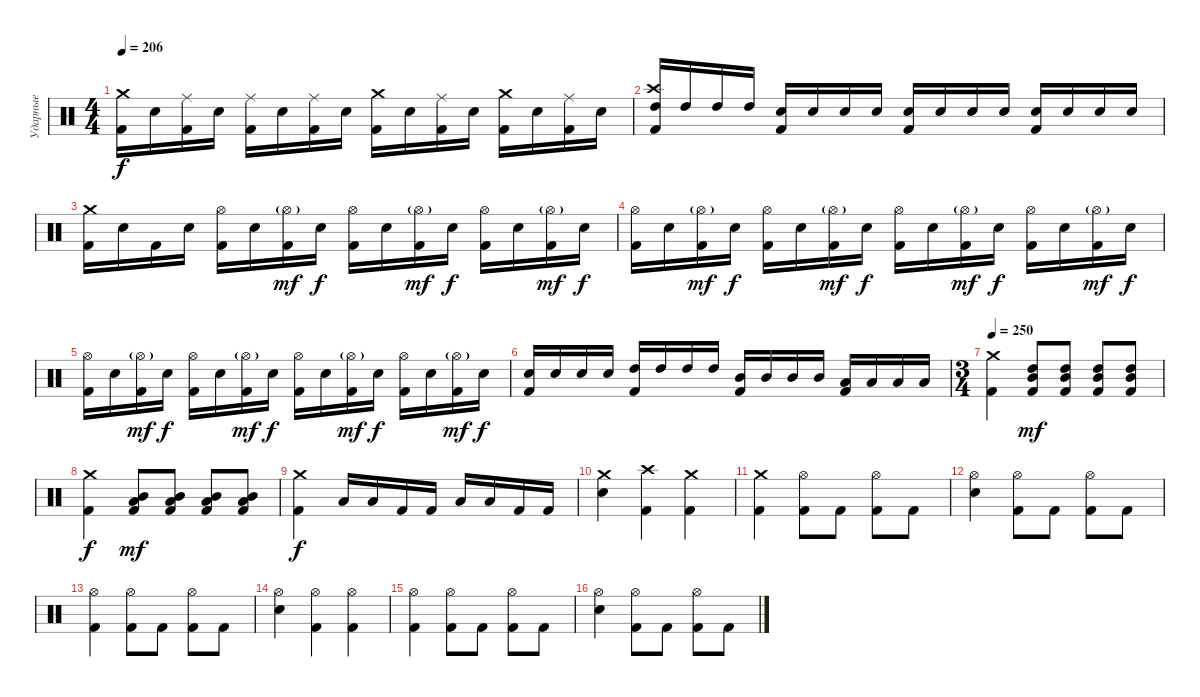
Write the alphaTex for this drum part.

\track ("Ударные" "Ударные") {instrument percussion}
\staff {score}
\articulation defaults
\ts (4 4)
\tempo 206
\clef neutral
\ks c
("Crash medium (hit)" "Kick (hit) 2").16{dy f} "Electric Snare (hit)".16 ("Ride (middle)" "Kick (hit) 2").16 "Electric Snare (hit)".16 ("Ride (middle)" "Kick (hit) 2").16 "Electric Snare (hit)".16 ("Ride (middle)" "Kick (hit) 2").16 "Electric Snare (hit)".16 ("Crash medium (hit)" "Kick (hit) 2").16 "Electric Snare (hit)".16 ("Ride (middle)" "Kick (hit) 2").16 "Electric Snare (hit)".16 ("Crash medium (hit)" "Kick (hit) 2").16 "Electric Snare (hit)".16 ("Ride (middle)" "Kick (hit) 2").16 "Electric Snare (hit)".16 |
("Crash high (hit)" "High Tom (hit)" "Kick (hit) 2").16 "High Tom (hit)".16 "High Tom (hit)".16 "High Tom (hit)".16 ("Electric Snare (hit)" "Kick (hit) 2").16 "Electric Snare (hit)".16 "Electric Snare (hit)".16 "Electric Snare (hit)".16 ("Electric Snare (hit)" "Kick (hit) 2").16 "Electric Snare (hit)".16 "Electric Snare (hit)".16 "Electric Snare (hit)".16 ("Electric Snare (hit)" "Kick (hit) 2").16 "Electric Snare (hit)".16 "Electric Snare (hit)".16 "Electric Snare (hit)".16 |
("Crash medium (hit)" "Kick (hit) 2").16 "Electric Snare (hit)".16 "Kick (hit) 2".16 "Electric Snare (hit)".16 ("Hi-Hat (open)" "Kick (hit) 2").16 "Electric Snare (hit)".16 ("Hi-Hat (open)"{g} "Kick (hit) 2").16{dy mf} "Electric Snare (hit)".16{dy f} ("Hi-Hat (open)" "Kick (hit) 2").16 "Electric Snare (hit)".16 ("Hi-Hat (open)"{g} "Kick (hit) 2").16{dy mf} "Electric Snare (hit)".16{dy f} ("Hi-Hat (open)" "Kick (hit) 2").16 "Electric Snare (hit)".16 ("Hi-Hat (open)"{g} "Kick (hit) 2").16{dy mf} "Electric Snare (hit)".16{dy f} |
("Hi-Hat (open)" "Kick (hit) 2").16 "Electric Snare (hit)".16 ("Hi-Hat (open)"{g} "Kick (hit) 2").16{dy mf} "Electric Snare (hit)".16{dy f} ("Hi-Hat (open)" "Kick (hit) 2").16 "Electric Snare (hit)".16 ("Hi-Hat (open)"{g} "Kick (hit) 2").16{dy mf} "Electric Snare (hit)".16{dy f} ("Hi-Hat (open)" "Kick (hit) 2").16 "Electric Snare (hit)".16 ("Hi-Hat (open)"{g} "Kick (hit) 2").16{dy mf} "Electric Snare (hit)".16{dy f} ("Hi-Hat (open)" "Kick (hit) 2").16 "Electric Snare (hit)".16 ("Hi-Hat (open)"{g} "Kick (hit) 2").16{dy mf} "Electric Snare (hit)".16{dy f} |
("Hi-Hat (open)" "Kick (hit) 2").16 "Electric Snare (hit)".16 ("Hi-Hat (open)"{g} "Kick (hit) 2").16{dy mf} "Electric Snare (hit)".16{dy f} ("Hi-Hat (open)" "Kick (hit) 2").16 "Electric Snare (hit)".16 ("Hi-Hat (open)"{g} "Kick (hit) 2").16{dy mf} "Electric Snare (hit)".16{dy f} ("Hi-Hat (open)" "Kick (hit) 2").16 "Electric Snare (hit)".16 ("Hi-Hat (open)"{g} "Kick (hit) 2").16{dy mf} "Electric Snare (hit)".16{dy f} ("Hi-Hat (open)" "Kick (hit) 2").16 "Electric Snare (hit)".16 ("Hi-Hat (open)"{g} "Kick (hit) 2").16{dy mf} "Electric Snare (hit)".16{dy f} |
("Electric Snare (hit)" "Kick (hit) 2").16 "Electric Snare (hit)".16 "Electric Snare (hit)".16 "Electric Snare (hit)".16 ("High Tom (hit)" "Kick (hit) 2").16 "High Tom (hit)".16 "High Tom (hit)".16 "High Tom (hit)".16 ("Mid Tom (hit)" "Kick (hit) 2").16 "Mid Tom (hit)".16 "Mid Tom (hit)".16 "Mid Tom (hit)".16 ("Low Tom (hit)" "Kick (hit) 2").16 "Low Tom (hit)".16 "Low Tom (hit)".16 "Low Tom (hit)".16 |
\ts (3 4)
\tempo 250
("Crash medium (hit)" "Kick (hit) 2").4 ("High Tom (hit)" "Mid Tom (hit)" "Kick (hit) 2").8{dy mf} ("High Tom (hit)" "Mid Tom (hit)" "Kick (hit) 2").8 ("High Tom (hit)" "Mid Tom (hit)" "Kick (hit) 2").8 ("High Tom (hit)" "Mid Tom (hit)" "Kick (hit) 2").8 |
("Crash medium (hit)" "Kick (hit) 2").4{dy f} ("Mid Tom (hit)" "Low Tom (hit)" "Kick (hit) 2").8{dy mf} ("Mid Tom (hit)" "Low Tom (hit)" "Kick (hit) 2").8 ("Mid Tom (hit)" "Low Tom (hit)" "Kick (hit) 2").8 ("Mid Tom (hit)" "Low Tom (hit)" "Kick (hit) 2").8 |
("Crash medium (hit)" "Kick (hit) 2").4{dy f} "Low Tom (hit)".16 "Low Tom (hit)".16 "Kick (hit) 2".16 "Kick (hit) 2".16 "Low Tom (hit)".16 "Low Tom (hit)".16 "Kick (hit) 2".16 "Kick (hit) 2".16 |
("Crash medium (hit)" "Electric Snare (hit)").4 ("Crash high (hit)" "Kick (hit) 2").4 ("Crash medium (hit)" "Kick (hit) 2").4 |
("Crash medium (hit)" "Kick (hit) 2").4 ("Hi-Hat (open)" "Kick (hit) 2").8 "Kick (hit) 2".8 ("Hi-Hat (open)" "Kick (hit) 2").8 "Kick (hit) 2".8 |
("Hi-Hat (open)" "Electric Snare (hit)").4 ("Hi-Hat (open)" "Kick (hit) 2").8 "Kick (hit) 2".8 ("Hi-Hat (open)" "Kick (hit) 2").8 "Kick (hit) 2".8 |
("Hi-Hat (open)" "Kick (hit) 2").4 ("Hi-Hat (open)" "Kick (hit) 2").8 "Kick (hit) 2".8 ("Hi-Hat (open)" "Kick (hit) 2").8 "Kick (hit) 2".8 |
("Hi-Hat (open)" "Electric Snare (hit)").4 ("Hi-Hat (open)" "Kick (hit) 2").4 ("Hi-Hat (open)" "Kick (hit) 2").4 |
("Hi-Hat (open)" "Kick (hit) 2").4 ("Hi-Hat (open)" "Kick (hit) 2").8 "Kick (hit) 2".8 ("Hi-Hat (open)" "Kick (hit) 2").8 "Kick (hit) 2".8 |
("Hi-Hat (open)" "Electric Snare (hit)").4 ("Hi-Hat (open)" "Kick (hit) 2").8 "Kick (hit) 2".8 ("Hi-Hat (open)" "Kick (hit) 2").8 "Kick (hit) 2".8
